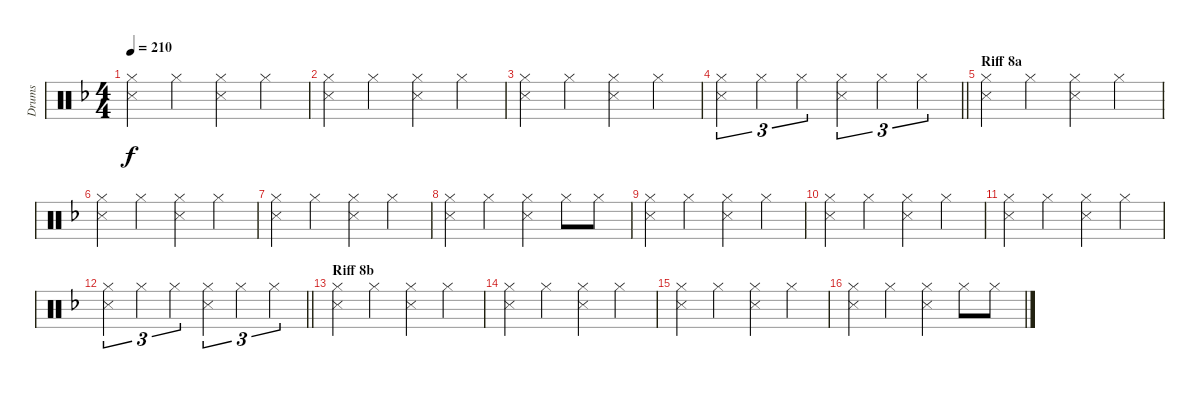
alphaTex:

\track ("Drums" "Drums") {instrument percussion}
\staff {score}
\articulation defaults
\ts (4 4)
\tempo 210
\clef neutral
\ks dminor
("Hi-Hat (closed)" "Snare (side stick) 3").4{dy f} "Hi-Hat (closed)".4 ("Hi-Hat (closed)" "Snare (side stick) 3").4 "Hi-Hat (closed)".4 |
("Hi-Hat (closed)" "Snare (side stick) 3").4 "Hi-Hat (closed)".4 ("Hi-Hat (closed)" "Snare (side stick) 3").4 "Hi-Hat (closed)".4 |
("Hi-Hat (closed)" "Snare (side stick) 3").4 "Hi-Hat (closed)".4 ("Hi-Hat (closed)" "Snare (side stick) 3").4 "Hi-Hat (closed)".4 |
\barLineRight lightlight
("Hi-Hat (closed)" "Snare (side stick) 3").4{tu (3 2)} "Hi-Hat (closed)".4{tu (3 2)} "Hi-Hat (closed)".4{tu (3 2)} ("Hi-Hat (closed)" "Snare (side stick) 3").4{tu (3 2)} "Hi-Hat (closed)".4{tu (3 2)} "Hi-Hat (closed)".4{tu (3 2)} |
\section ("" "Riff 8a")
("Hi-Hat (closed)" "Snare (side stick) 3").4 "Hi-Hat (closed)".4 ("Hi-Hat (closed)" "Snare (side stick) 3").4 "Hi-Hat (closed)".4 |
("Hi-Hat (closed)" "Snare (side stick) 3").4 "Hi-Hat (closed)".4 ("Hi-Hat (closed)" "Snare (side stick) 3").4 "Hi-Hat (closed)".4 |
("Hi-Hat (closed)" "Snare (side stick) 3").4 "Hi-Hat (closed)".4 ("Hi-Hat (closed)" "Snare (side stick) 3").4 "Hi-Hat (closed)".4 |
("Hi-Hat (closed)" "Snare (side stick) 3").4 "Hi-Hat (closed)".4 ("Hi-Hat (closed)" "Snare (side stick) 3").4 "Hi-Hat (closed)".8 "Hi-Hat (closed)".8 |
("Hi-Hat (closed)" "Snare (side stick) 3").4 "Hi-Hat (closed)".4 ("Hi-Hat (closed)" "Snare (side stick) 3").4 "Hi-Hat (closed)".4 |
("Hi-Hat (closed)" "Snare (side stick) 3").4 "Hi-Hat (closed)".4 ("Hi-Hat (closed)" "Snare (side stick) 3").4 "Hi-Hat (closed)".4 |
("Hi-Hat (closed)" "Snare (side stick) 3").4 "Hi-Hat (closed)".4 ("Hi-Hat (closed)" "Snare (side stick) 3").4 "Hi-Hat (closed)".4 |
\barLineRight lightlight
("Hi-Hat (closed)" "Snare (side stick) 3").4{tu (3 2)} "Hi-Hat (closed)".4{tu (3 2)} "Hi-Hat (closed)".4{tu (3 2)} ("Hi-Hat (closed)" "Snare (side stick) 3").4{tu (3 2)} "Hi-Hat (closed)".4{tu (3 2)} "Hi-Hat (closed)".4{tu (3 2)} |
\section ("" "Riff 8b")
("Hi-Hat (closed)" "Snare (side stick) 3").4 "Hi-Hat (closed)".4 ("Hi-Hat (closed)" "Snare (side stick) 3").4 "Hi-Hat (closed)".4 |
("Hi-Hat (closed)" "Snare (side stick) 3").4 "Hi-Hat (closed)".4 ("Hi-Hat (closed)" "Snare (side stick) 3").4 "Hi-Hat (closed)".4 |
("Hi-Hat (closed)" "Snare (side stick) 3").4 "Hi-Hat (closed)".4 ("Hi-Hat (closed)" "Snare (side stick) 3").4 "Hi-Hat (closed)".4 |
("Hi-Hat (closed)" "Snare (side stick) 3").4 "Hi-Hat (closed)".4 ("Hi-Hat (closed)" "Snare (side stick) 3").4 "Hi-Hat (closed)".8 "Hi-Hat (closed)".8
